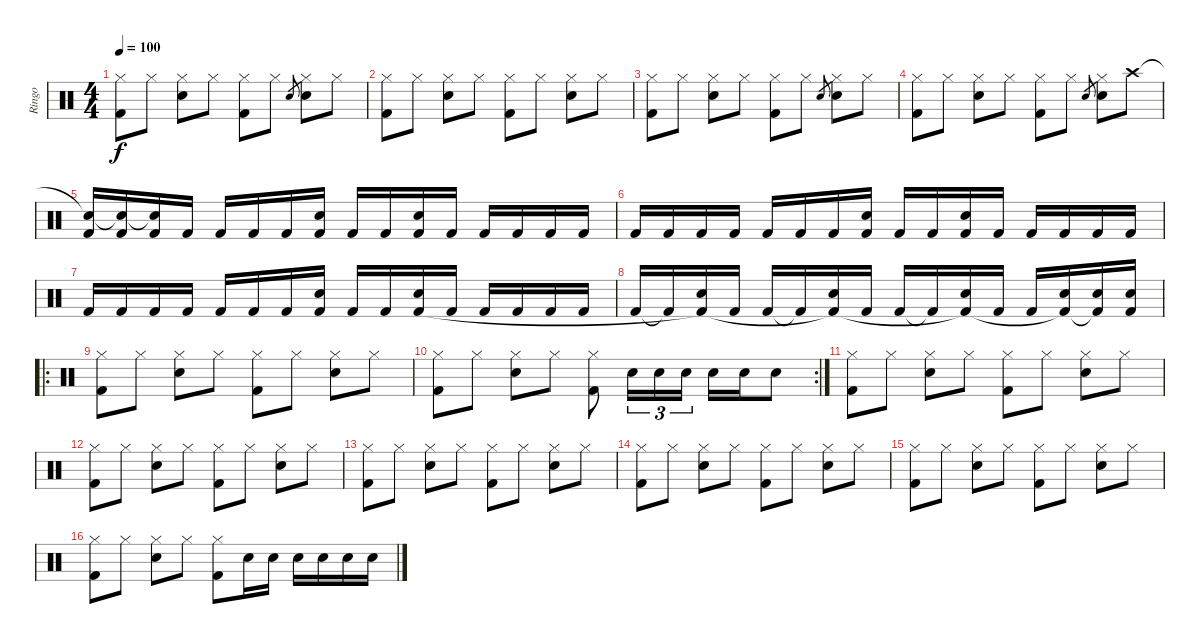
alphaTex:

\track ("Ringo" "Ringo") {instrument percussion}
\staff {score}
\articulation defaults
\ts (4 4)
\tempo 100
\clef neutral
\ks c
("Hi-Hat (closed)" "Kick (hit) 2").8{dy f} "Hi-Hat (closed)".8 ("Hi-Hat (closed)" "Electric Snare (hit)").8 "Hi-Hat (closed)".8 ("Hi-Hat (closed)" "Kick (hit) 2").8 "Hi-Hat (closed)".8 "Electric Snare (hit)".8{gr} ("Hi-Hat (closed)" "Electric Snare (hit)").8 "Hi-Hat (closed)".8 |
("Hi-Hat (closed)" "Kick (hit) 2").8 "Hi-Hat (closed)".8 ("Hi-Hat (closed)" "Electric Snare (hit)").8 "Hi-Hat (closed)".8 ("Hi-Hat (closed)" "Kick (hit) 2").8 "Hi-Hat (closed)".8 ("Hi-Hat (closed)" "Electric Snare (hit)").8 "Hi-Hat (closed)".8 |
("Hi-Hat (closed)" "Kick (hit) 2").8 "Hi-Hat (closed)".8 ("Hi-Hat (closed)" "Electric Snare (hit)").8 "Hi-Hat (closed)".8 ("Hi-Hat (closed)" "Kick (hit) 2").8 "Hi-Hat (closed)".8 "Electric Snare (hit)".8{gr} ("Hi-Hat (closed)" "Electric Snare (hit)").8 "Hi-Hat (closed)".8 |
("Hi-Hat (closed)" "Kick (hit) 2").8 "Hi-Hat (closed)".8 ("Hi-Hat (closed)" "Electric Snare (hit)").8 "Hi-Hat (closed)".8 ("Hi-Hat (closed)" "Kick (hit) 2").8 "Hi-Hat (closed)".8 "Electric Snare (hit)".8{gr} ("Hi-Hat (closed)" "Electric Snare (hit)").8 "Crash high (hit)".8 |
("Snare (hit)"{t} "Kick (hit) 2").16 ("Snare (hit)"{t} "Kick (hit) 2").16 ("Snare (hit)"{t} "Kick (hit) 2").16 "Kick (hit) 2".16 "Kick (hit) 2".16 "Kick (hit) 2".16 "Kick (hit) 2".16 ("Electric Snare (hit)" "Kick (hit) 2").16 "Kick (hit) 2".16 "Kick (hit) 2".16 ("Electric Snare (hit)" "Kick (hit) 2").16 "Kick (hit) 2".16 "Kick (hit) 2".16 "Kick (hit) 2".16 "Kick (hit) 2".16 "Kick (hit) 2".16 |
"Kick (hit) 2".16 "Kick (hit) 2".16 "Kick (hit) 2".16 "Kick (hit) 2".16 "Kick (hit) 2".16 "Kick (hit) 2".16 "Kick (hit) 2".16 ("Electric Snare (hit)" "Kick (hit) 2").16 "Kick (hit) 2".16 "Kick (hit) 2".16 ("Electric Snare (hit)" "Kick (hit) 2").16 "Kick (hit) 2".16 "Kick (hit) 2".16 "Kick (hit) 2".16 "Kick (hit) 2".16 "Kick (hit) 2".16 |
"Kick (hit) 2".16 "Kick (hit) 2".16 "Kick (hit) 2".16 "Kick (hit) 2".16 "Kick (hit) 2".16 "Kick (hit) 2".16 "Kick (hit) 2".16 ("Electric Snare (hit)" "Kick (hit) 2").16 "Kick (hit) 2".16 "Kick (hit) 2".16 ("Electric Snare (hit)" "Kick (hit) 2").16 "Kick (hit) 2".16 "Kick (hit) 2".16 "Kick (hit) 2".16 "Kick (hit) 2".16 "Kick (hit) 2".16 |
"Kick (hit) 2".16 "Kick (hit) 2"{t}.16 ("Electric Snare (hit)" "Kick (hit) 2"{t}).16 "Kick (hit) 2".16 "Kick (hit) 2".16 "Kick (hit) 2"{t}.16 ("Electric Snare (hit)" "Kick (hit) 2"{t}).16 "Kick (hit) 2".16 "Kick (hit) 2".16 "Kick (hit) 2"{t}.16 ("Electric Snare (hit)" "Kick (hit) 2"{t}).16 "Kick (hit) 2".16 "Kick (hit) 2".16 ("Electric Snare (hit)" "Kick (hit) 2"{t}).16 ("Electric Snare (hit)" "Kick (hit) 2"{t}).16 ("Electric Snare (hit)" "Kick (hit) 2").16 |
\ro
("Hi-Hat (closed)" "Kick (hit) 2").8 "Hi-Hat (closed)".8 ("Hi-Hat (closed)" "Electric Snare (hit)").8 "Hi-Hat (closed)".8 ("Hi-Hat (closed)" "Kick (hit) 2").8 "Hi-Hat (closed)".8 ("Hi-Hat (closed)" "Electric Snare (hit)").8 "Hi-Hat (closed)".8 |
\rc 2
("Hi-Hat (closed)" "Kick (hit) 2").8 "Hi-Hat (closed)".8 ("Hi-Hat (closed)" "Electric Snare (hit)").8 "Hi-Hat (closed)".8 ("Hi-Hat (closed)" "Kick (hit) 2").8 "Electric Snare (hit)".16{tu (3 2)} "Electric Snare (hit)".16{tu (3 2)} "Electric Snare (hit)".16{tu (3 2)} "Electric Snare (hit)".16 "Electric Snare (hit)".16 "Electric Snare (hit)".8 |
("Hi-Hat (closed)" "Kick (hit) 2").8 "Hi-Hat (closed)".8 ("Hi-Hat (closed)" "Electric Snare (hit)").8 "Hi-Hat (closed)".8 ("Hi-Hat (closed)" "Kick (hit) 2").8 "Hi-Hat (closed)".8 ("Hi-Hat (closed)" "Electric Snare (hit)").8 "Hi-Hat (closed)".8 |
("Hi-Hat (closed)" "Kick (hit) 2").8 "Hi-Hat (closed)".8 ("Hi-Hat (closed)" "Electric Snare (hit)").8 "Hi-Hat (closed)".8 ("Hi-Hat (closed)" "Kick (hit) 2").8 "Hi-Hat (closed)".8 ("Hi-Hat (closed)" "Electric Snare (hit)").8 "Hi-Hat (closed)".8 |
("Hi-Hat (closed)" "Kick (hit) 2").8 "Hi-Hat (closed)".8 ("Hi-Hat (closed)" "Electric Snare (hit)").8 "Hi-Hat (closed)".8 ("Hi-Hat (closed)" "Kick (hit) 2").8 "Hi-Hat (closed)".8 ("Hi-Hat (closed)" "Electric Snare (hit)").8 "Hi-Hat (closed)".8 |
("Hi-Hat (closed)" "Kick (hit) 2").8 "Hi-Hat (closed)".8 ("Hi-Hat (closed)" "Electric Snare (hit)").8 "Hi-Hat (closed)".8 ("Hi-Hat (closed)" "Kick (hit) 2").8 "Hi-Hat (closed)".8 ("Hi-Hat (closed)" "Electric Snare (hit)").8 "Hi-Hat (closed)".8 |
("Hi-Hat (closed)" "Kick (hit) 2").8 "Hi-Hat (closed)".8 ("Hi-Hat (closed)" "Electric Snare (hit)").8 "Hi-Hat (closed)".8 ("Hi-Hat (closed)" "Kick (hit) 2").8 "Hi-Hat (closed)".8 ("Hi-Hat (closed)" "Electric Snare (hit)").8 "Hi-Hat (closed)".8 |
("Hi-Hat (closed)" "Kick (hit) 2").8 "Hi-Hat (closed)".8 ("Hi-Hat (closed)" "Electric Snare (hit)").8 "Hi-Hat (closed)".8 ("Hi-Hat (closed)" "Kick (hit) 2").8 "Electric Snare (hit)".16 "Electric Snare (hit)".16 "Electric Snare (hit)".16 "Electric Snare (hit)".16 "Electric Snare (hit)".16 "Electric Snare (hit)".16
